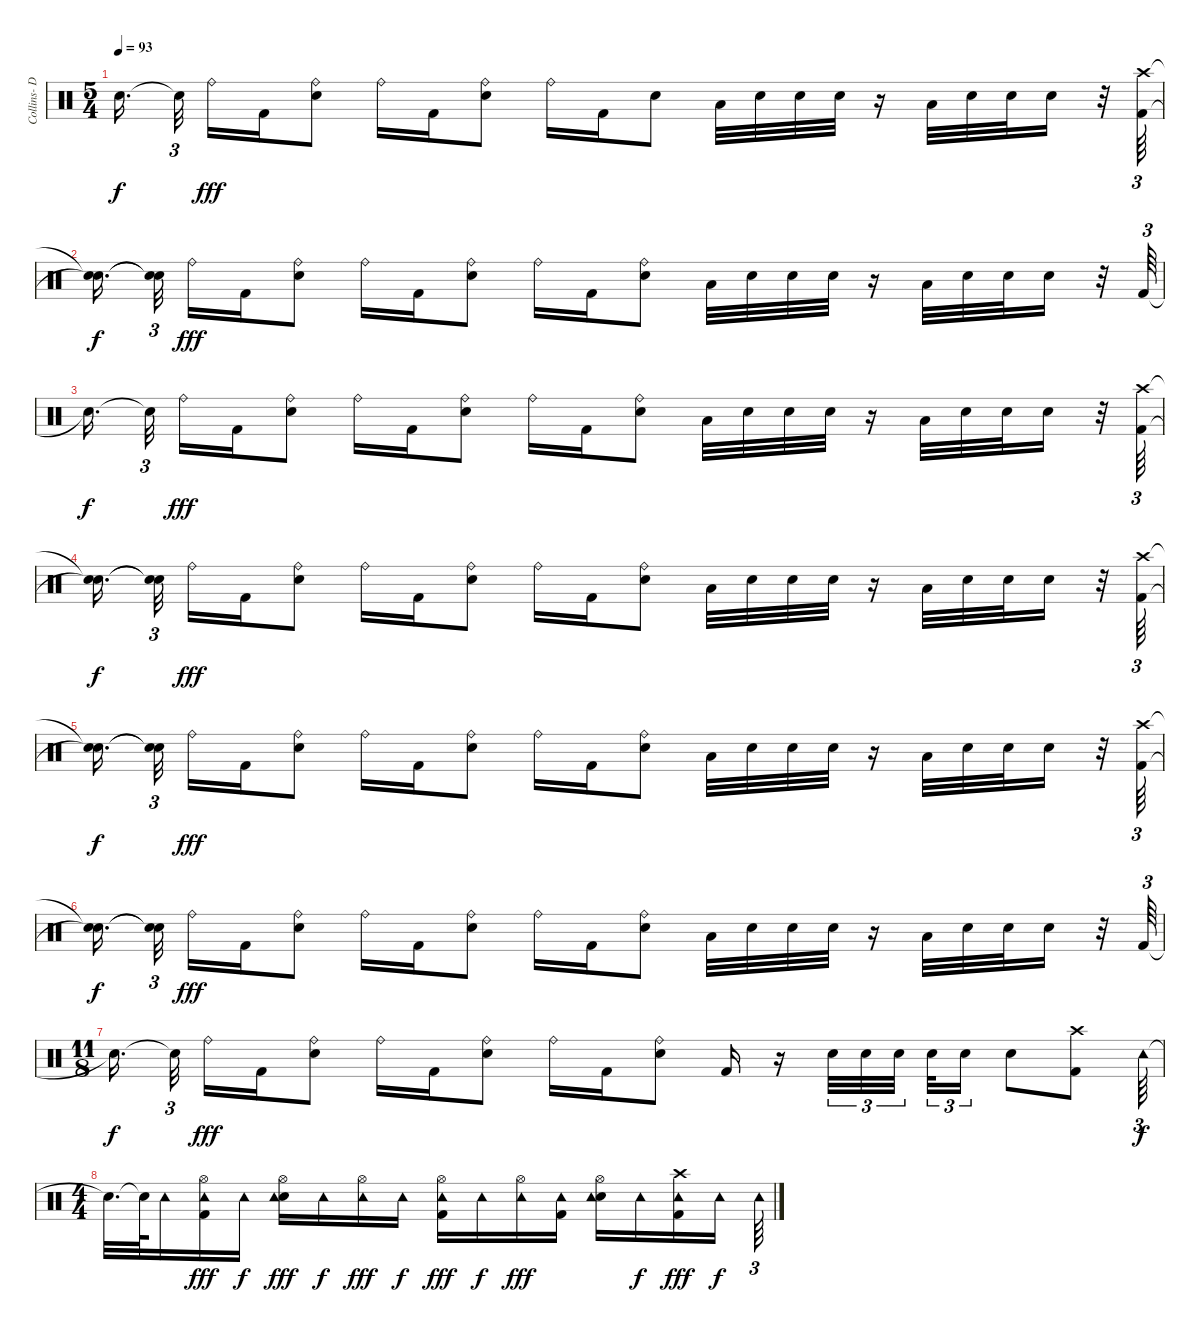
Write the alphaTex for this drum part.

\track ("Collins- Drums" "Collins- D") {instrument percussion}
\staff {score}
\articulation defaults
\ts (5 4)
\tempo 93
\clef neutral
\ks c "Snare (hit)"{t}.16{d dy f beam splitsecondary} "Snare (hit)"{t}.32{tu (3 2) beam splitsecondary} "Ride (bell)".16{dy fff} "Kick (hit) 2".16
("Electric Snare (hit)" "Ride (bell)").8 "Ride (bell)".16 "Kick (hit) 2".16 ("Electric Snare (hit)" "Ride (bell)").8 "Ride (bell)".16 "Kick (hit) 2".16 "Electric Snare (hit)".8 "Low Tom (hit)".32 "Electric Snare (hit)".32 "Electric Snare (hit)".32 "Electric Snare (hit)".32 r.16 "Low Tom (hit)".32 "Electric Snare (hit)".32 "Electric Snare (hit)".32 "Electric Snare (hit)".16 r.32 ("Crash high (hit)" "Kick (hit) 2").64{tu (3 2)} |
("Snare (hit)"{t} "Snare (hit)"{t}).16{d dy f beam splitsecondary} ("Snare (hit)"{t} "Snare (hit)"{t}).32{tu (3 2) beam splitsecondary} "Ride (bell)".16{dy fff} "Kick (hit) 2".16 ("Electric Snare (hit)" "Ride (bell)").8 "Ride (bell)".16 "Kick (hit) 2".16 ("Electric Snare (hit)" "Ride (bell)").8 "Ride (bell)".16 "Kick (hit) 2".16 ("Ride (bell)" "Electric Snare (hit)").8 "Low Tom (hit)".32 "Electric Snare (hit)".32 "Electric Snare (hit)".32 "Electric Snare (hit)".32 r.16 "Low Tom (hit)".32 "Electric Snare (hit)".32 "Electric Snare (hit)".32 "Electric Snare (hit)".16 r.32 "Kick (hit) 2".64{tu (3 2)} |
"Snare (hit)"{t}.16{d dy f beam splitsecondary} "Snare (hit)"{t}.32{tu (3 2) beam splitsecondary} "Ride (bell)".16{dy fff} "Kick (hit) 2".16 ("Electric Snare (hit)" "Ride (bell)").8 "Ride (bell)".16 "Kick (hit) 2".16 ("Electric Snare (hit)" "Ride (bell)").8 "Ride (bell)".16 "Kick (hit) 2".16 ("Ride (bell)" "Electric Snare (hit)").8 "Low Tom (hit)".32 "Electric Snare (hit)".32 "Electric Snare (hit)".32 "Electric Snare (hit)".32 r.16 "Low Tom (hit)".32 "Electric Snare (hit)".32 "Electric Snare (hit)".32 "Electric Snare (hit)".16 r.32 ("Crash high (hit)" "Kick (hit) 2").64{tu (3 2)} |
("Snare (hit)"{t} "Snare (hit)"{t}).16{d dy f beam splitsecondary} ("Snare (hit)"{t} "Snare (hit)"{t}).32{tu (3 2) beam splitsecondary} "Ride (bell)".16{dy fff} "Kick (hit) 2".16 ("Electric Snare (hit)" "Ride (bell)").8 "Ride (bell)".16 "Kick (hit) 2".16 ("Electric Snare (hit)" "Ride (bell)").8 "Ride (bell)".16 "Kick (hit) 2".16 ("Ride (bell)" "Electric Snare (hit)").8 "Low Tom (hit)".32 "Electric Snare (hit)".32 "Electric Snare (hit)".32 "Electric Snare (hit)".32 r.16 "Low Tom (hit)".32 "Electric Snare (hit)".32 "Electric Snare (hit)".32 "Electric Snare (hit)".16 r.32 ("Crash high (hit)" "Kick (hit) 2").64{tu (3 2)} |
("Snare (hit)"{t} "Snare (hit)"{t}).16{d dy f beam splitsecondary} ("Snare (hit)"{t} "Snare (hit)"{t}).32{tu (3 2) beam splitsecondary} "Ride (bell)".16{dy fff} "Kick (hit) 2".16 ("Electric Snare (hit)" "Ride (bell)").8 "Ride (bell)".16 "Kick (hit) 2".16 ("Electric Snare (hit)" "Ride (bell)").8 "Ride (bell)".16 "Kick (hit) 2".16 ("Ride (bell)" "Electric Snare (hit)").8 "Low Tom (hit)".32 "Electric Snare (hit)".32 "Electric Snare (hit)".32 "Electric Snare (hit)".32 r.16 "Low Tom (hit)".32 "Electric Snare (hit)".32 "Electric Snare (hit)".32 "Electric Snare (hit)".16 r.32 ("Crash high (hit)" "Kick (hit) 2").64{tu (3 2)} |
("Snare (hit)"{t} "Snare (hit)"{t}).16{d dy f beam splitsecondary} ("Snare (hit)"{t} "Snare (hit)"{t}).32{tu (3 2) beam splitsecondary} "Ride (bell)".16{dy fff} "Kick (hit) 2".16 ("Electric Snare (hit)" "Ride (bell)").8 "Ride (bell)".16 "Kick (hit) 2".16 ("Electric Snare (hit)" "Ride (bell)").8 "Ride (bell)".16 "Kick (hit) 2".16 ("Ride (bell)" "Electric Snare (hit)").8 "Low Tom (hit)".32 "Electric Snare (hit)".32 "Electric Snare (hit)".32 "Electric Snare (hit)".32 r.16 "Low Tom (hit)".32 "Electric Snare (hit)".32 "Electric Snare (hit)".32 "Electric Snare (hit)".16 r.32 "Kick (hit) 2".64{tu (3 2)} |
\ts (11 8)
"Snare (hit)"{t}.16{d dy f beam splitsecondary} "Snare (hit)"{t}.32{tu (3 2)} "Ride (bell)".16{dy fff} "Kick (hit) 2".16 ("Electric Snare (hit)" "Ride (bell)").8 "Ride (bell)".16 "Kick (hit) 2".16 ("Electric Snare (hit)" "Ride (bell)").8 "Ride (bell)".16 "Kick (hit) 2".16 ("Ride (bell)" "Electric Snare (hit)").8 "Kick (hit) 2".16 r.16 "Electric Snare (hit)".32{tu (3 2)} "Electric Snare (hit)".32{tu (3 2)} "Electric Snare (hit)".32{tu (3 2) beam splitsecondary} "Electric Snare (hit)".32{tu (3 2)} "Electric Snare (hit)".16{tu (3 2)} "Electric Snare (hit)".8 ("Kick (hit) 2" "Crash high (hit)").8 "Tambourine (hit)".64{tu (3 2) dy f} |
\ts (4 4)
"Snare (hit)"{t}.32{d} "Snare (hit)"{t}.64 "Tambourine (hit)".16 ("Hi-Hat (open)" "Kick (hit) 2" "Tambourine (hit)").16{dy fff} "Tambourine (hit)".16{dy f} ("Hi-Hat (open)" "Electric Snare (hit)" "Tambourine (hit)").16{dy fff} "Tambourine (hit)".16{dy f} ("Hi-Hat (open)" "Tambourine (hit)").16{dy fff} "Tambourine (hit)".16{dy f} ("Hi-Hat (open)" "Kick (hit) 2" "Tambourine (hit)").16{dy fff} "Tambourine (hit)".16{dy f} ("Hi-Hat (open)" "Tambourine (hit)").16{dy fff} ("Kick (hit) 2" "Tambourine (hit)").16 ("Hi-Hat (open)" "Electric Snare (hit)" "Tambourine (hit)").16 "Tambourine (hit)".16{dy f} ("Kick (hit) 2" "Crash high (hit)" "Tambourine (hit)").16{dy fff} "Tambourine (hit)".16{dy f} "Tambourine (hit)".64{tu (3 2)}
